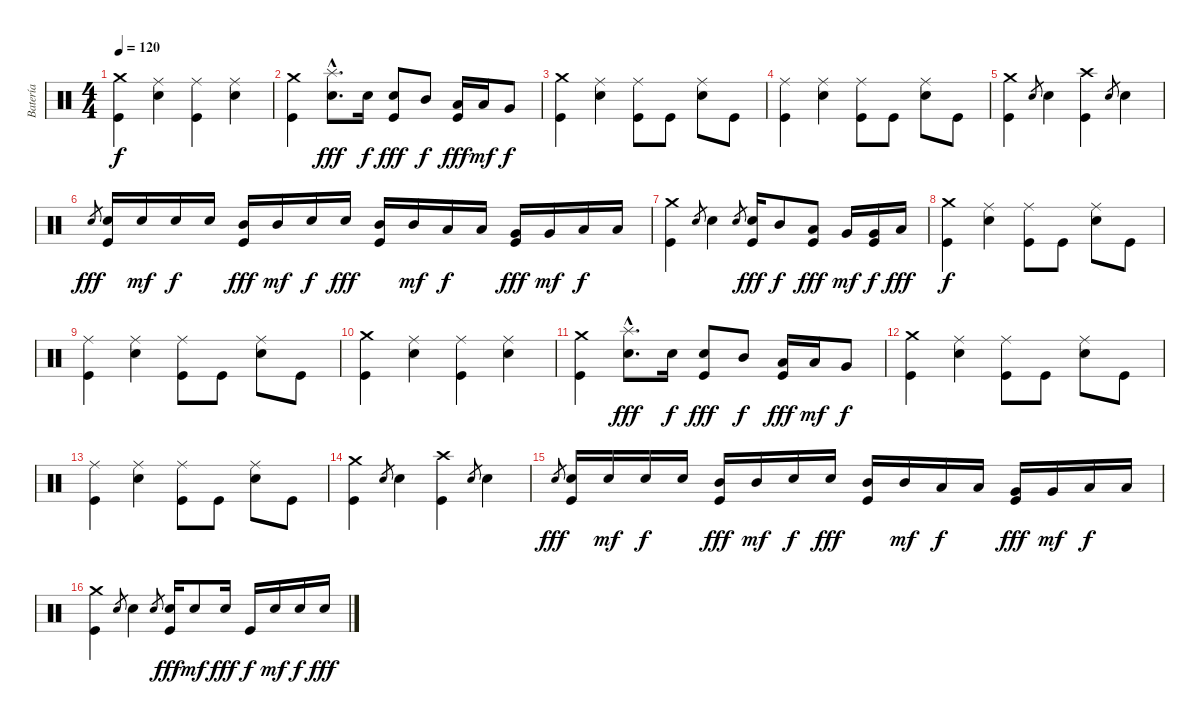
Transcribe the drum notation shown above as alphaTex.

\track ("Batería" "Batería") {instrument percussion}
\staff {score}
\articulation defaults
\ts (4 4)
\tempo 120
\clef neutral
\ks c
("Kick (hit)" "Crash medium (hit)").4{dy f} ("Electric Snare (hit)" "Ride (middle)").4 ("Kick (hit)" "Ride (middle)").4 ("Electric Snare (hit)" "Ride (middle)").4 |
("Kick (hit)" "Crash medium (hit)").4 ("Electric Snare (hit)"{hac} "Splash (hit)"{hac}).8{d dy fff} "Electric Snare (hit)".16{dy f} ("Kick (hit)" "Electric Snare (hit)").8{dy fff} "Mid Tom (hit)".8{dy f} ("Kick (hit)" "Low Tom (hit)").16{dy fff} "Low Tom (hit)".16{dy mf} "Very Low Tom (hit)".8{dy f} |
("Kick (hit)" "Crash medium (hit)").4 ("Electric Snare (hit)" "Ride (middle)").4 ("Kick (hit)" "Ride (middle)").8 "Kick (hit)".8 ("Electric Snare (hit)" "Ride (middle)").8 "Kick (hit)".8 |
("Kick (hit)" "Ride (middle)").4 ("Electric Snare (hit)" "Ride (middle)").4 ("Kick (hit)" "Ride (middle)").8 "Kick (hit)".8 ("Electric Snare (hit)" "Ride (middle)").8 "Kick (hit)".8 |
("Kick (hit)" "Crash medium (hit)").4 "Electric Snare (hit)".8{gr} "Electric Snare (hit)".4 ("Kick (hit)" "Crash high (hit)").4 "Electric Snare (hit)".8{gr} "Electric Snare (hit)".4 |
"Electric Snare (hit)".8{gr dy fff} ("Kick (hit)" "Electric Snare (hit)").16 "Electric Snare (hit)".16{dy mf} "Electric Snare (hit)".16{dy f} "Electric Snare (hit)".16 ("Kick (hit)" "Mid Tom (hit)").16{dy fff} "Mid Tom (hit)".16{dy mf} "Electric Snare (hit)".16{dy f} "Electric Snare (hit)".16{dy fff} ("Kick (hit)" "Mid Tom (hit)").16 "Mid Tom (hit)".16{dy mf} "Low Tom (hit)".16{dy f} "Low Tom (hit)".16 ("Kick (hit)" "Very Low Tom (hit)").16{dy fff} "Very Low Tom (hit)".16{dy mf} "Low Floor Tom (hit)".16{dy f} "Low Floor Tom (hit)".16 |
("Kick (hit)" "Crash medium (hit)").4 "Electric Snare (hit)".8{gr} "Electric Snare (hit)".4 "Electric Snare (hit)".8{gr} ("Kick (hit)" "Electric Snare (hit)").16{dy fff} "Mid Tom (hit)".8{dy f} ("Kick (hit)" "Low Tom (hit)").8{dy fff} "Very Low Tom (hit)".16{dy mf} ("Kick (hit)" "Very Low Tom (hit)").16{dy f} "Low Floor Tom (hit)".16{dy fff} |
("Kick (hit)" "Crash medium (hit)").4{dy f} ("Electric Snare (hit)" "Ride (middle)").4 ("Kick (hit)" "Ride (middle)").8 "Kick (hit)".8 ("Electric Snare (hit)" "Ride (middle)").8 "Kick (hit)".8 |
("Kick (hit)" "Ride (middle)").4 ("Electric Snare (hit)" "Ride (middle)").4 ("Kick (hit)" "Ride (middle)").8 "Kick (hit)".8 ("Electric Snare (hit)" "Ride (middle)").8 "Kick (hit)".8 |
("Kick (hit)" "Crash medium (hit)").4 ("Electric Snare (hit)" "Ride (middle)").4 ("Kick (hit)" "Ride (middle)").4 ("Electric Snare (hit)" "Ride (middle)").4 |
("Kick (hit)" "Crash medium (hit)").4 ("Electric Snare (hit)"{hac} "Splash (hit)"{hac}).8{d dy fff} "Electric Snare (hit)".16{dy f} ("Kick (hit)" "Electric Snare (hit)").8{dy fff} "Mid Tom (hit)".8{dy f} ("Kick (hit)" "Low Tom (hit)").16{dy fff} "Low Tom (hit)".16{dy mf} "Very Low Tom (hit)".8{dy f} |
("Kick (hit)" "Crash medium (hit)").4 ("Electric Snare (hit)" "Ride (middle)").4 ("Kick (hit)" "Ride (middle)").8 "Kick (hit)".8 ("Electric Snare (hit)" "Ride (middle)").8 "Kick (hit)".8 |
("Kick (hit)" "Ride (middle)").4 ("Electric Snare (hit)" "Ride (middle)").4 ("Kick (hit)" "Ride (middle)").8 "Kick (hit)".8 ("Electric Snare (hit)" "Ride (middle)").8 "Kick (hit)".8 |
("Kick (hit)" "Crash medium (hit)").4 "Electric Snare (hit)".8{gr} "Electric Snare (hit)".4 ("Kick (hit)" "Crash high (hit)").4 "Electric Snare (hit)".8{gr} "Electric Snare (hit)".4 |
"Electric Snare (hit)".8{gr dy fff} ("Kick (hit)" "Electric Snare (hit)").16 "Electric Snare (hit)".16{dy mf} "Electric Snare (hit)".16{dy f} "Electric Snare (hit)".16 ("Kick (hit)" "Mid Tom (hit)").16{dy fff} "Mid Tom (hit)".16{dy mf} "Electric Snare (hit)".16{dy f} "Electric Snare (hit)".16{dy fff} ("Kick (hit)" "Mid Tom (hit)").16 "Mid Tom (hit)".16{dy mf} "Low Tom (hit)".16{dy f} "Low Tom (hit)".16 ("Kick (hit)" "Very Low Tom (hit)").16{dy fff} "Very Low Tom (hit)".16{dy mf} "Low Floor Tom (hit)".16{dy f} "Low Floor Tom (hit)".16 |
("Kick (hit)" "Crash medium (hit)").4 "Electric Snare (hit)".8{gr} "Electric Snare (hit)".4 "Electric Snare (hit)".8{gr} ("Kick (hit)" "Electric Snare (hit)").16{dy fff} "Electric Snare (hit)".8{dy mf} "Electric Snare (hit)".16{dy fff} "Kick (hit)".16{dy f} "Electric Snare (hit)".16{dy mf} "Electric Snare (hit)".16{dy f} "Electric Snare (hit)".16{dy fff}
